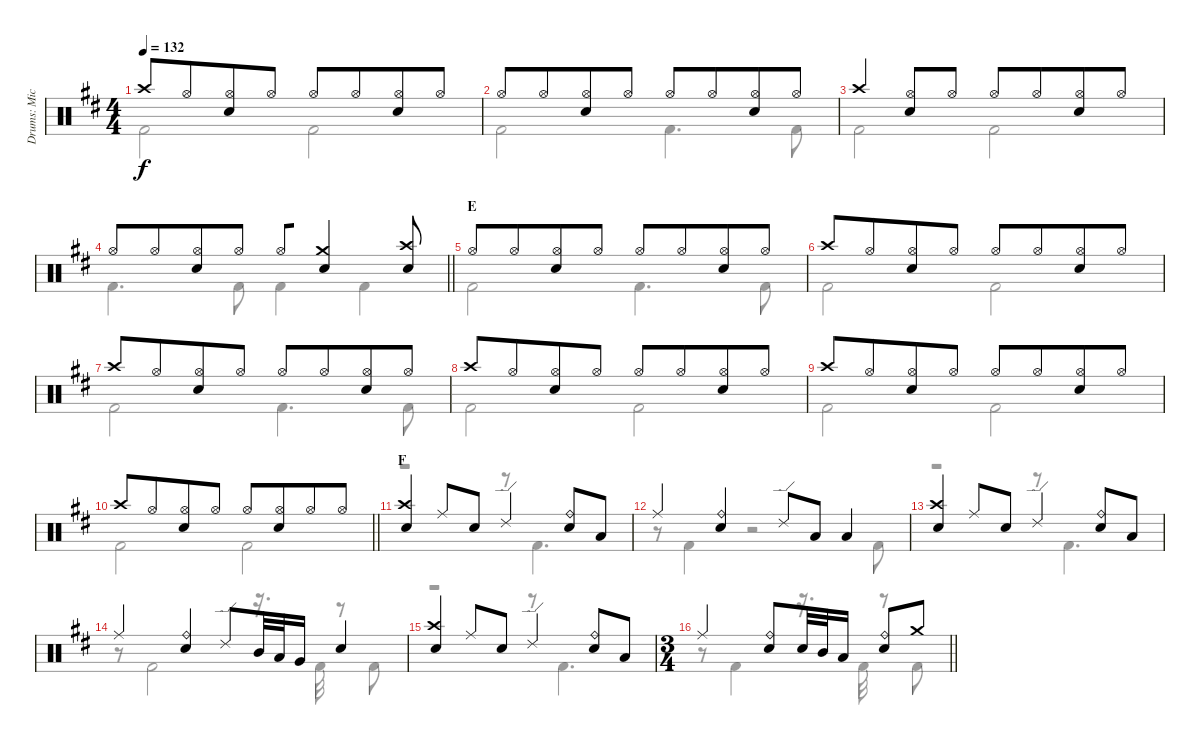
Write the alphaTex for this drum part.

\track ("Drums: Mick" "Drums: Mic") {instrument percussion}
\staff {score}
\articulation defaults
\voice
\ts (4 4)
\tempo 132
\clef neutral
\ks d "Crash high (hit)".8{dy f} "Hi-Hat (open)".8{beam merge}
("Hi-Hat (open)" "Snare (hit) 2").8 "Hi-Hat (open)".8 "Hi-Hat (open)".8 "Hi-Hat (open)".8{beam merge} ("Hi-Hat (open)" "Snare (hit) 2").8 "Hi-Hat (open)".8 |
"Hi-Hat (open)".8 "Hi-Hat (open)".8{beam merge} ("Hi-Hat (open)" "Snare (hit) 2").8 "Hi-Hat (open)".8 "Hi-Hat (open)".8 "Hi-Hat (open)".8{beam merge} ("Hi-Hat (open)" "Snare (hit) 2").8 "Hi-Hat (open)".8 |
"Crash high (hit)".4 ("Hi-Hat (open)" "Snare (hit) 2").8 "Hi-Hat (open)".8 "Hi-Hat (open)".8 "Hi-Hat (open)".8{beam merge} ("Hi-Hat (open)" "Snare (hit) 2").8 "Hi-Hat (open)".8 |
\barLineRight lightlight "Hi-Hat (open)".8 "Hi-Hat (open)".8{beam merge}
("Hi-Hat (open)" "Snare (hit) 2").8 "Hi-Hat (open)".8 "Hi-Hat (open)".8{beam merge} ("Crash medium (hit)" "Snare (hit) 2").4 ("Crash high (hit)" "Snare (hit) 2").8 |
\section ("" "E")
"Hi-Hat (open)".8 "Hi-Hat (open)".8{beam merge} ("Hi-Hat (open)" "Snare (hit) 2").8 "Hi-Hat (open)".8 "Hi-Hat (open)".8 "Hi-Hat (open)".8{beam merge} ("Hi-Hat (open)" "Snare (hit) 2").8 "Hi-Hat (open)".8 |
"Crash high (hit)".8 "Hi-Hat (open)".8{beam merge} ("Hi-Hat (open)" "Snare (hit) 2").8 "Hi-Hat (open)".8 "Hi-Hat (open)".8 "Hi-Hat (open)".8{beam merge} ("Hi-Hat (open)" "Snare (hit) 2").8 "Hi-Hat (open)".8 |
"Crash high (hit)".8 "Hi-Hat (open)".8{beam merge} ("Hi-Hat (open)" "Snare (hit) 2").8 "Hi-Hat (open)".8 "Hi-Hat (open)".8 "Hi-Hat (open)".8{beam merge} ("Hi-Hat (open)" "Snare (hit) 2").8 "Hi-Hat (open)".8 |
"Crash high (hit)".8 "Hi-Hat (open)".8{beam merge} ("Hi-Hat (open)" "Snare (hit) 2").8 "Hi-Hat (open)".8 "Hi-Hat (open)".8 "Hi-Hat (open)".8{beam merge} ("Hi-Hat (open)" "Snare (hit) 2").8 "Hi-Hat (open)".8 |
"Crash high (hit)".8 "Hi-Hat (open)".8{beam merge} ("Hi-Hat (open)" "Snare (hit) 2").8 "Hi-Hat (open)".8 "Hi-Hat (open)".8 "Hi-Hat (open)".8{beam merge} ("Hi-Hat (open)" "Snare (hit) 2").8 "Hi-Hat (open)".8 |
\barLineRight lightlight "Crash high (hit)".8 "Hi-Hat (open)".8{beam merge}
("Hi-Hat (open)" "Snare (hit) 2").8 "Hi-Hat (open)".8 "Hi-Hat (open)".8 ("Hi-Hat (open)" "Snare (hit) 2").8{beam merge} "Hi-Hat (open)".8 "Hi-Hat (open)".8 |
\section ("" "F")
("Crash high (hit)" "Snare (hit) 2").4 "Ride (middle)".8 "Snare (hit) 2".8 "Ride (edge) 2".4 ("Ride (bell)" "Snare (hit) 2").8 "Low Tom (hit)".8 |
"Ride (middle)".4 ("Ride (bell)" "Snare (hit) 2").4 "Ride (edge) 2".8 "Low Tom (hit)".8 "Low Tom (hit)".4 |
("Crash high (hit)" "Snare (hit) 2").4 "Ride (middle)".8 "Snare (hit) 2".8 "Ride (edge) 2".4 ("Ride (bell)" "Snare (hit) 2").8 "Low Tom (hit)".8 |
"Ride (middle)".4 ("Ride (bell)" "Snare (hit) 2").4 "Ride (edge) 2".8 "Mid Tom (hit)".32 "Low Tom (hit)".32 "Very Low Tom (hit)".16 "Snare (hit) 2".4 |
("Crash high (hit)" "Snare (hit) 2").4 "Ride (middle)".8 "Snare (hit) 2".8 "Ride (edge) 2".4 ("Ride (bell)" "Snare (hit) 2").8 "Low Tom (hit)".8 |
\ts (3 4)
\barLineRight lightlight "Ride (middle)".4
("Ride (bell)" "Snare (hit) 2").8 "Electric Snare (hit)".32 "Mid Tom (hit)".32 "Low Tom (hit)".16 ("Ride (bell)" "Snare (hit) 2").8 "Crash medium (hit)".8
\voice
\clef neutral
\ottava regular
\simile none
\ks d "Kick (hit) 2".2{dy f} "Kick (hit) 2".2
|
"Kick (hit) 2".2 "Kick (hit) 2".4{d} "Kick (hit) 2".8 |
"Kick (hit) 2".2 "Kick (hit) 2".2 |
\barLineRight lightlight "Kick (hit) 2".4{d} "Kick (hit) 2".8 "Kick (hit) 2".4 "Kick (hit) 2".4
|
"Kick (hit) 2".2 "Kick (hit) 2".4{d} "Kick (hit) 2".8 |
"Kick (hit) 2".2 "Kick (hit) 2".2 |
"Kick (hit) 2".2 "Kick (hit) 2".4{d} "Kick (hit) 2".8 |
"Kick (hit) 2".2 "Kick (hit) 2".2 |
"Kick (hit) 2".2 "Kick (hit) 2".2 |
\barLineRight lightlight "Kick (hit) 2".2 "Kick (hit) 2".2
|
r.2 r.8 "Kick (hit) 2".4{d} |
r.8 "Kick (hit) 2".4 r.2 "Kick (hit) 2".8 |
r.2 r.8 "Kick (hit) 2".4{d} |
r.8 "Kick (hit) 2".2 r.16{d} "Kick (hit) 2".32 r.8 "Kick (hit) 2".8 |
r.2 r.8 "Kick (hit) 2".4{d} |
\barLineRight lightlight
r.8 "Kick (hit) 2".4 r.16{d} "Kick (hit) 2".32 r.8 "Kick (hit) 2".8
